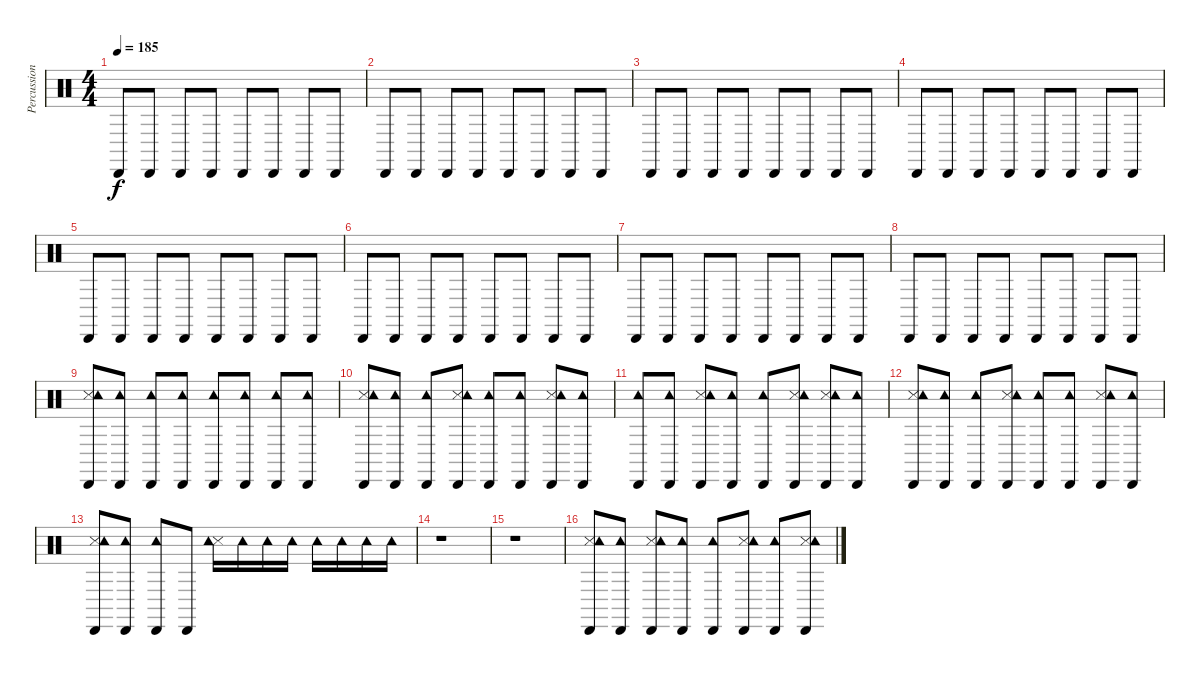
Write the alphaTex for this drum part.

\track ("Percussion" "Percussion") {instrument percussion}
\staff {score}
\articulation defaults
\ts (4 4)
\tempo 185
\clef neutral
\ks c "Cabasa (hit)".8{dy f} "Cabasa (hit)".8 "Cabasa (hit)".8 "Cabasa (hit)".8 "Cabasa (hit)".8 "Cabasa (hit)".8 "Cabasa (hit)".8 "Cabasa (hit)".8
|
"Cabasa (hit)".8 "Cabasa (hit)".8 "Cabasa (hit)".8 "Cabasa (hit)".8 "Cabasa (hit)".8 "Cabasa (hit)".8 "Cabasa (hit)".8 "Cabasa (hit)".8 |
"Cabasa (hit)".8 "Cabasa (hit)".8 "Cabasa (hit)".8 "Cabasa (hit)".8 "Cabasa (hit)".8 "Cabasa (hit)".8 "Cabasa (hit)".8 "Cabasa (hit)".8 |
"Cabasa (hit)".8 "Cabasa (hit)".8 "Cabasa (hit)".8 "Cabasa (hit)".8 "Cabasa (hit)".8 "Cabasa (hit)".8 "Cabasa (hit)".8 "Cabasa (hit)".8 |
"Cabasa (hit)".8 "Cabasa (hit)".8 "Cabasa (hit)".8 "Cabasa (hit)".8 "Cabasa (hit)".8 "Cabasa (hit)".8 "Cabasa (hit)".8 "Cabasa (hit)".8 |
"Cabasa (hit)".8 "Cabasa (hit)".8 "Cabasa (hit)".8 "Cabasa (hit)".8 "Cabasa (hit)".8 "Cabasa (hit)".8 "Cabasa (hit)".8 "Cabasa (hit)".8 |
"Cabasa (hit)".8 "Cabasa (hit)".8 "Cabasa (hit)".8 "Cabasa (hit)".8 "Cabasa (hit)".8 "Cabasa (hit)".8 "Cabasa (hit)".8 "Cabasa (hit)".8 |
"Cabasa (hit)".8 "Cabasa (hit)".8 "Cabasa (hit)".8 "Cabasa (hit)".8 "Cabasa (hit)".8 "Cabasa (hit)".8 "Cabasa (hit)".8 "Cabasa (hit)".8 |
("Cabasa (hit)" "Snare (side stick) 3" "Tambourine (hit)").8 ("Cabasa (hit)" "Tambourine (hit)").8 ("Cabasa (hit)" "Tambourine (hit)").8 ("Cabasa (hit)" "Tambourine (hit)").8 ("Cabasa (hit)" "Tambourine (hit)").8 ("Cabasa (hit)" "Tambourine (hit)").8 ("Cabasa (hit)" "Tambourine (hit)").8 ("Cabasa (hit)" "Tambourine (hit)").8 |
("Cabasa (hit)" "Snare (side stick) 3" "Tambourine (hit)").8 ("Cabasa (hit)" "Tambourine (hit)").8 ("Cabasa (hit)" "Tambourine (hit)").8 ("Cabasa (hit)" "Snare (side stick) 3" "Tambourine (hit)").8 ("Cabasa (hit)" "Tambourine (hit)").8 ("Cabasa (hit)" "Tambourine (hit)").8 ("Cabasa (hit)" "Snare (side stick) 3" "Tambourine (hit)").8 ("Cabasa (hit)" "Tambourine (hit)").8 |
("Cabasa (hit)" "Tambourine (hit)").8 ("Cabasa (hit)" "Tambourine (hit)").8 ("Cabasa (hit)" "Snare (side stick) 3" "Tambourine (hit)").8 ("Cabasa (hit)" "Tambourine (hit)").8 ("Cabasa (hit)" "Tambourine (hit)").8 ("Cabasa (hit)" "Snare (side stick) 3" "Tambourine (hit)").8 ("Cabasa (hit)" "Snare (side stick) 3" "Tambourine (hit)").8 ("Cabasa (hit)" "Tambourine (hit)").8 |
("Cabasa (hit)" "Snare (side stick) 3" "Tambourine (hit)").8 ("Cabasa (hit)" "Tambourine (hit)").8 ("Cabasa (hit)" "Tambourine (hit)").8 ("Cabasa (hit)" "Snare (side stick) 3" "Tambourine (hit)").8 ("Cabasa (hit)" "Tambourine (hit)").8 ("Cabasa (hit)" "Tambourine (hit)").8 ("Cabasa (hit)" "Snare (side stick) 3" "Tambourine (hit)").8 ("Cabasa (hit)" "Tambourine (hit)").8 |
("Cabasa (hit)" "Snare (side stick) 3" "Tambourine (hit)").8 ("Cabasa (hit)" "Tambourine (hit)").8 ("Cabasa (hit)" "Tambourine (hit)").8 "Cabasa (hit)".8 ("Snare (side stick) 3" "Tambourine (hit)").16 "Tambourine (hit)".16 "Tambourine (hit)".16 "Tambourine (hit)".16 "Tambourine (hit)".16 "Tambourine (hit)".16 "Tambourine (hit)".16 "Tambourine (hit)".16 |
r.1 |
r.1 |
("Cabasa (hit)" "Snare (side stick) 3" "Tambourine (hit)").8 ("Cabasa (hit)" "Tambourine (hit)").8 ("Cabasa (hit)" "Snare (side stick) 3" "Tambourine (hit)").8 ("Cabasa (hit)" "Tambourine (hit)").8 ("Cabasa (hit)" "Tambourine (hit)").8 ("Cabasa (hit)" "Snare (side stick) 3" "Tambourine (hit)").8 ("Cabasa (hit)" "Tambourine (hit)").8 ("Cabasa (hit)" "Snare (side stick) 3" "Tambourine (hit)").8
